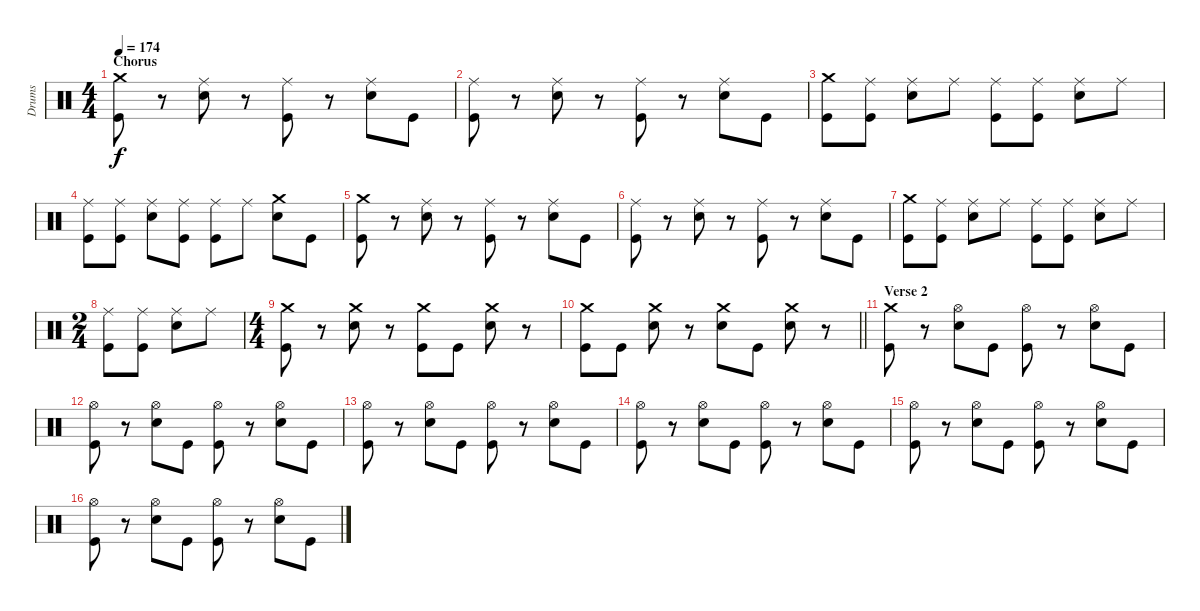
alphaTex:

\track ("Drums" "Drums") {instrument percussion}
\staff {score}
\articulation defaults
\ts (4 4)
\section ("" "Chorus")
\tempo 174
\clef neutral
\ks c
("Crash medium (hit)" "Kick (hit)").8{dy f} r.8 ("Ride (middle)" "Snare (hit) 2").8 r.8 ("Ride (middle)" "Kick (hit)").8 r.8 ("Ride (middle)" "Snare (hit) 2").8 "Kick (hit)".8 |
("Ride (middle)" "Kick (hit)").8 r.8 ("Ride (middle)" "Snare (hit) 2").8 r.8 ("Ride (middle)" "Kick (hit)").8 r.8 ("Ride (middle)" "Snare (hit) 2").8 "Kick (hit)".8 |
("Crash medium (hit)" "Kick (hit)").8 ("Ride (middle)" "Kick (hit)").8 ("Ride (middle)" "Snare (hit) 2").8 "Ride (middle)".8 ("Ride (middle)" "Kick (hit)").8 ("Ride (middle)" "Kick (hit)").8 ("Ride (middle)" "Snare (hit) 2").8 "Ride (middle)".8 |
("Ride (middle)" "Kick (hit)").8 ("Ride (middle)" "Kick (hit)").8 ("Ride (middle)" "Snare (hit) 2").8 ("Ride (middle)" "Kick (hit)").8 ("Ride (middle)" "Kick (hit)").8 "Ride (middle)".8 ("Crash medium (hit)" "Snare (hit) 2").8 "Kick (hit)".8 |
("Crash medium (hit)" "Kick (hit)").8 r.8 ("Ride (middle)" "Snare (hit) 2").8 r.8 ("Ride (middle)" "Kick (hit)").8 r.8 ("Ride (middle)" "Snare (hit) 2").8 "Kick (hit)".8 |
("Ride (middle)" "Kick (hit)").8 r.8 ("Ride (middle)" "Snare (hit) 2").8 r.8 ("Ride (middle)" "Kick (hit)").8 r.8 ("Ride (middle)" "Snare (hit) 2").8 "Kick (hit)".8 |
("Crash medium (hit)" "Kick (hit)").8 ("Ride (middle)" "Kick (hit)").8 ("Ride (middle)" "Snare (hit) 2").8 "Ride (middle)".8 ("Ride (middle)" "Kick (hit)").8 ("Ride (middle)" "Kick (hit)").8 ("Ride (middle)" "Snare (hit) 2").8 "Ride (middle)".8 |
\ts (2 4)
("Ride (middle)" "Kick (hit)").8 ("Ride (middle)" "Kick (hit)").8 ("Ride (middle)" "Snare (hit) 2").8 "Ride (middle)".8 |
\ts (4 4)
("Crash medium (hit)" "Kick (hit)").8 r.8 ("Crash medium (hit)" "Snare (hit) 2").8 r.8 ("Crash medium (hit)" "Kick (hit)").8 "Kick (hit)".8 ("Crash medium (hit)" "Snare (hit) 2").8 r.8 |
\barLineRight lightlight
("Crash medium (hit)" "Kick (hit)").8 "Kick (hit)".8 ("Crash medium (hit)" "Snare (hit) 2").8 r.8 ("Crash medium (hit)" "Snare (hit) 2").8 "Kick (hit)".8 ("Crash medium (hit)" "Snare (hit) 2").8 r.8 |
\section ("" "Verse 2")
("Crash medium (hit)" "Kick (hit)").8 r.8 ("Hi-Hat (open)" "Snare (hit) 2").8 "Kick (hit)".8 ("Hi-Hat (open)" "Kick (hit)").8 r.8 ("Hi-Hat (open)" "Snare (hit) 2").8 "Kick (hit)".8 |
("Hi-Hat (open)" "Kick (hit)").8 r.8 ("Hi-Hat (open)" "Snare (hit) 2").8 "Kick (hit)".8 ("Hi-Hat (open)" "Kick (hit)").8 r.8 ("Hi-Hat (open)" "Snare (hit) 2").8 "Kick (hit)".8 |
("Hi-Hat (open)" "Kick (hit)").8 r.8 ("Hi-Hat (open)" "Snare (hit) 2").8 "Kick (hit)".8 ("Hi-Hat (open)" "Kick (hit)").8 r.8 ("Hi-Hat (open)" "Snare (hit) 2").8 "Kick (hit)".8 |
("Hi-Hat (open)" "Kick (hit)").8 r.8 ("Hi-Hat (open)" "Snare (hit) 2").8 "Kick (hit)".8 ("Hi-Hat (open)" "Kick (hit)").8 r.8 ("Hi-Hat (open)" "Snare (hit) 2").8 "Kick (hit)".8 |
("Hi-Hat (open)" "Kick (hit)").8 r.8 ("Hi-Hat (open)" "Snare (hit) 2").8 "Kick (hit)".8 ("Hi-Hat (open)" "Kick (hit)").8 r.8 ("Hi-Hat (open)" "Snare (hit) 2").8 "Kick (hit)".8 |
("Hi-Hat (open)" "Kick (hit)").8 r.8 ("Hi-Hat (open)" "Snare (hit) 2").8 "Kick (hit)".8 ("Hi-Hat (open)" "Kick (hit)").8 r.8 ("Hi-Hat (open)" "Snare (hit) 2").8 "Kick (hit)".8
